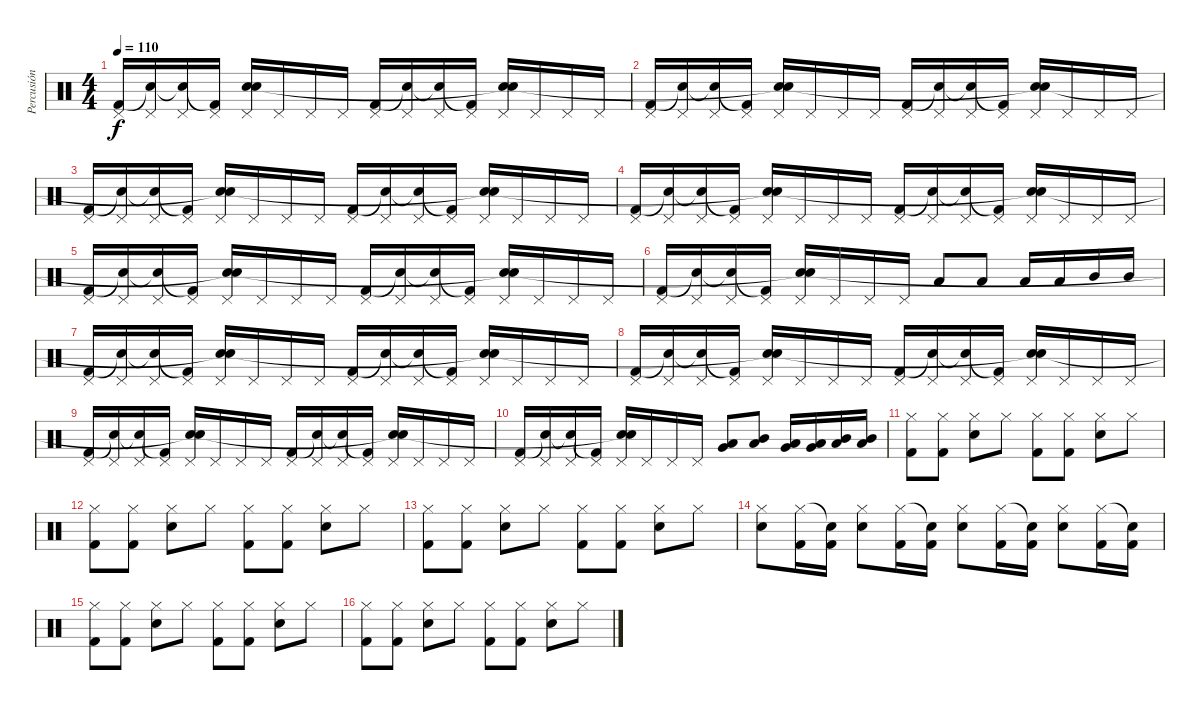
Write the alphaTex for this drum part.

\track ("Percusión" "Percusión") {instrument percussion}
\staff {score}
\articulation defaults
\ts (4 4)
\tempo 110
\clef neutral
\ks c
("Pedal Hi-Hat (hit)" "Kick (hit) 2").16{dy f} ("Pedal Hi-Hat (hit)" "Snare (hit)"{t}).16 ("Pedal Hi-Hat (hit)" "Snare (hit)"{t}).16 ("Pedal Hi-Hat (hit)" "Kick (hit) 2"{t}).16 ("Pedal Hi-Hat (hit)" "Electric Snare (hit)" "Snare (hit)").16 "Pedal Hi-Hat (hit)".16 "Pedal Hi-Hat (hit)".16 "Pedal Hi-Hat (hit)".16 ("Pedal Hi-Hat (hit)" "Kick (hit) 2").16 ("Pedal Hi-Hat (hit)" "Snare (hit)"{t}).16 ("Pedal Hi-Hat (hit)" "Snare (hit)"{t}).16 ("Pedal Hi-Hat (hit)" "Kick (hit) 2"{t}).16 ("Pedal Hi-Hat (hit)" "Electric Snare (hit)" "Snare (hit)"{t}).16 "Pedal Hi-Hat (hit)".16 "Pedal Hi-Hat (hit)".16 "Pedal Hi-Hat (hit)".16 |
("Pedal Hi-Hat (hit)" "Kick (hit) 2").16 ("Pedal Hi-Hat (hit)" "Snare (hit)"{t}).16 ("Pedal Hi-Hat (hit)" "Snare (hit)"{t}).16 ("Pedal Hi-Hat (hit)" "Kick (hit) 2"{t}).16 ("Pedal Hi-Hat (hit)" "Electric Snare (hit)" "Snare (hit)"{t}).16 "Pedal Hi-Hat (hit)".16 "Pedal Hi-Hat (hit)".16 "Pedal Hi-Hat (hit)".16 ("Pedal Hi-Hat (hit)" "Kick (hit) 2").16 ("Pedal Hi-Hat (hit)" "Snare (hit)"{t}).16 ("Pedal Hi-Hat (hit)" "Snare (hit)"{t}).16 ("Pedal Hi-Hat (hit)" "Kick (hit) 2"{t}).16 ("Pedal Hi-Hat (hit)" "Electric Snare (hit)" "Snare (hit)"{t}).16 "Pedal Hi-Hat (hit)".16 "Pedal Hi-Hat (hit)".16 "Pedal Hi-Hat (hit)".16 |
("Pedal Hi-Hat (hit)" "Kick (hit) 2").16 ("Pedal Hi-Hat (hit)" "Snare (hit)"{t}).16 ("Pedal Hi-Hat (hit)" "Snare (hit)"{t}).16 ("Pedal Hi-Hat (hit)" "Kick (hit) 2"{t}).16 ("Pedal Hi-Hat (hit)" "Electric Snare (hit)" "Snare (hit)"{t}).16 "Pedal Hi-Hat (hit)".16 "Pedal Hi-Hat (hit)".16 "Pedal Hi-Hat (hit)".16 ("Pedal Hi-Hat (hit)" "Kick (hit) 2").16 ("Pedal Hi-Hat (hit)" "Snare (hit)"{t}).16 ("Pedal Hi-Hat (hit)" "Snare (hit)"{t}).16 ("Pedal Hi-Hat (hit)" "Kick (hit) 2"{t}).16 ("Pedal Hi-Hat (hit)" "Electric Snare (hit)" "Snare (hit)"{t}).16 "Pedal Hi-Hat (hit)".16 "Pedal Hi-Hat (hit)".16 "Pedal Hi-Hat (hit)".16 |
("Pedal Hi-Hat (hit)" "Kick (hit) 2").16 ("Pedal Hi-Hat (hit)" "Snare (hit)"{t}).16 ("Pedal Hi-Hat (hit)" "Snare (hit)"{t}).16 ("Pedal Hi-Hat (hit)" "Kick (hit) 2"{t}).16 ("Pedal Hi-Hat (hit)" "Electric Snare (hit)" "Snare (hit)"{t}).16 "Pedal Hi-Hat (hit)".16 "Pedal Hi-Hat (hit)".16 "Pedal Hi-Hat (hit)".16 ("Pedal Hi-Hat (hit)" "Kick (hit) 2").16 ("Pedal Hi-Hat (hit)" "Snare (hit)"{t}).16 ("Pedal Hi-Hat (hit)" "Snare (hit)"{t}).16 ("Pedal Hi-Hat (hit)" "Kick (hit) 2"{t}).16 ("Pedal Hi-Hat (hit)" "Electric Snare (hit)" "Snare (hit)"{t}).16 "Pedal Hi-Hat (hit)".16 "Pedal Hi-Hat (hit)".16 "Pedal Hi-Hat (hit)".16 |
("Pedal Hi-Hat (hit)" "Kick (hit) 2").16 ("Pedal Hi-Hat (hit)" "Snare (hit)"{t}).16 ("Pedal Hi-Hat (hit)" "Snare (hit)"{t}).16 ("Pedal Hi-Hat (hit)" "Kick (hit) 2"{t}).16 ("Pedal Hi-Hat (hit)" "Electric Snare (hit)" "Snare (hit)"{t}).16 "Pedal Hi-Hat (hit)".16 "Pedal Hi-Hat (hit)".16 "Pedal Hi-Hat (hit)".16 ("Pedal Hi-Hat (hit)" "Kick (hit) 2").16 ("Pedal Hi-Hat (hit)" "Snare (hit)"{t}).16 ("Pedal Hi-Hat (hit)" "Snare (hit)"{t}).16 ("Pedal Hi-Hat (hit)" "Kick (hit) 2"{t}).16 ("Pedal Hi-Hat (hit)" "Electric Snare (hit)" "Snare (hit)"{t}).16 "Pedal Hi-Hat (hit)".16 "Pedal Hi-Hat (hit)".16 "Pedal Hi-Hat (hit)".16 |
("Pedal Hi-Hat (hit)" "Kick (hit) 2").16 ("Pedal Hi-Hat (hit)" "Snare (hit)"{t}).16 ("Pedal Hi-Hat (hit)" "Snare (hit)"{t}).16 ("Pedal Hi-Hat (hit)" "Kick (hit) 2"{t}).16 ("Pedal Hi-Hat (hit)" "Electric Snare (hit)" "Snare (hit)"{t}).16 "Pedal Hi-Hat (hit)".16 "Pedal Hi-Hat (hit)".16 "Pedal Hi-Hat (hit)".16 "Low Tom (hit)".8 "Low Tom (hit)".8 "Low Tom (hit)".16 "Low Tom (hit)".16 "Mid Tom (hit)".16 "Mid Tom (hit)".16 |
("Pedal Hi-Hat (hit)" "Kick (hit) 2").16 ("Pedal Hi-Hat (hit)" "Snare (hit)"{t}).16 ("Pedal Hi-Hat (hit)" "Snare (hit)"{t}).16 ("Pedal Hi-Hat (hit)" "Kick (hit) 2"{t}).16 ("Pedal Hi-Hat (hit)" "Electric Snare (hit)" "Snare (hit)"{t}).16 "Pedal Hi-Hat (hit)".16 "Pedal Hi-Hat (hit)".16 "Pedal Hi-Hat (hit)".16 ("Pedal Hi-Hat (hit)" "Kick (hit) 2").16 ("Pedal Hi-Hat (hit)" "Snare (hit)"{t}).16 ("Pedal Hi-Hat (hit)" "Snare (hit)"{t}).16 ("Pedal Hi-Hat (hit)" "Kick (hit) 2"{t}).16 ("Pedal Hi-Hat (hit)" "Electric Snare (hit)" "Snare (hit)"{t}).16 "Pedal Hi-Hat (hit)".16 "Pedal Hi-Hat (hit)".16 "Pedal Hi-Hat (hit)".16 |
("Pedal Hi-Hat (hit)" "Kick (hit) 2").16 ("Pedal Hi-Hat (hit)" "Snare (hit)"{t}).16 ("Pedal Hi-Hat (hit)" "Snare (hit)"{t}).16 ("Pedal Hi-Hat (hit)" "Kick (hit) 2"{t}).16 ("Pedal Hi-Hat (hit)" "Electric Snare (hit)" "Snare (hit)"{t}).16 "Pedal Hi-Hat (hit)".16 "Pedal Hi-Hat (hit)".16 "Pedal Hi-Hat (hit)".16 ("Pedal Hi-Hat (hit)" "Kick (hit) 2").16 ("Pedal Hi-Hat (hit)" "Snare (hit)"{t}).16 ("Pedal Hi-Hat (hit)" "Snare (hit)"{t}).16 ("Pedal Hi-Hat (hit)" "Kick (hit) 2"{t}).16 ("Pedal Hi-Hat (hit)" "Electric Snare (hit)" "Snare (hit)"{t}).16 "Pedal Hi-Hat (hit)".16 "Pedal Hi-Hat (hit)".16 "Pedal Hi-Hat (hit)".16 |
("Pedal Hi-Hat (hit)" "Kick (hit) 2").16 ("Pedal Hi-Hat (hit)" "Snare (hit)"{t}).16 ("Pedal Hi-Hat (hit)" "Snare (hit)"{t}).16 ("Pedal Hi-Hat (hit)" "Kick (hit) 2"{t}).16 ("Pedal Hi-Hat (hit)" "Electric Snare (hit)" "Snare (hit)"{t}).16 "Pedal Hi-Hat (hit)".16 "Pedal Hi-Hat (hit)".16 "Pedal Hi-Hat (hit)".16 ("Pedal Hi-Hat (hit)" "Kick (hit) 2").16 ("Pedal Hi-Hat (hit)" "Snare (hit)"{t}).16 ("Pedal Hi-Hat (hit)" "Snare (hit)"{t}).16 ("Pedal Hi-Hat (hit)" "Kick (hit) 2"{t}).16 ("Pedal Hi-Hat (hit)" "Electric Snare (hit)" "Snare (hit)"{t}).16 "Pedal Hi-Hat (hit)".16 "Pedal Hi-Hat (hit)".16 "Pedal Hi-Hat (hit)".16 |
("Pedal Hi-Hat (hit)" "Kick (hit) 2").16 ("Pedal Hi-Hat (hit)" "Snare (hit)"{t}).16 ("Pedal Hi-Hat (hit)" "Snare (hit)"{t}).16 ("Pedal Hi-Hat (hit)" "Kick (hit) 2"{t}).16 ("Pedal Hi-Hat (hit)" "Electric Snare (hit)" "Snare (hit)"{t}).16 "Pedal Hi-Hat (hit)".16 "Pedal Hi-Hat (hit)".16 "Pedal Hi-Hat (hit)".16 ("Low Tom (hit)" "Very Low Tom (hit)").8 ("Low Tom (hit)" "Mid Tom (hit)").8 ("Low Tom (hit)" "Very Low Tom (hit)").16 ("Low Tom (hit)" "Very Low Tom (hit)").16 ("Mid Tom (hit)" "Low Tom (hit)").16 ("Mid Tom (hit)" "Low Tom (hit)").16 |
("Hi-Hat (closed)" "Kick (hit) 2").8 ("Hi-Hat (closed)" "Kick (hit) 2").8 ("Hi-Hat (closed)" "Electric Snare (hit)").8 "Hi-Hat (closed)".8 ("Hi-Hat (closed)" "Kick (hit) 2").8 ("Hi-Hat (closed)" "Kick (hit) 2").8 ("Hi-Hat (closed)" "Electric Snare (hit)").8 "Hi-Hat (closed)".8 |
("Hi-Hat (closed)" "Kick (hit) 2").8 ("Hi-Hat (closed)" "Kick (hit) 2").8 ("Hi-Hat (closed)" "Electric Snare (hit)").8 "Hi-Hat (closed)".8 ("Hi-Hat (closed)" "Kick (hit) 2").8 ("Hi-Hat (closed)" "Kick (hit) 2").8 ("Hi-Hat (closed)" "Electric Snare (hit)").8 "Hi-Hat (closed)".8 |
("Hi-Hat (closed)" "Kick (hit) 2").8 ("Hi-Hat (closed)" "Kick (hit) 2").8 ("Hi-Hat (closed)" "Electric Snare (hit)").8 "Hi-Hat (closed)".8 ("Hi-Hat (closed)" "Kick (hit) 2").8 ("Hi-Hat (closed)" "Kick (hit) 2").8 ("Hi-Hat (closed)" "Electric Snare (hit)").8 "Hi-Hat (closed)".8 |
("Hi-Hat (closed)" "Electric Snare (hit)").8 ("Hi-Hat (closed)" "Kick (hit) 2").16 ("Snare (hit)"{t} "Kick (hit) 2").16 ("Hi-Hat (closed)" "Electric Snare (hit)").8 ("Hi-Hat (closed)" "Kick (hit) 2").16 ("Snare (hit)"{t} "Kick (hit) 2").16 ("Hi-Hat (closed)" "Electric Snare (hit)").8 ("Hi-Hat (closed)" "Kick (hit) 2").16 ("Snare (hit)"{t} "Kick (hit) 2").16 ("Hi-Hat (closed)" "Electric Snare (hit)").8 ("Hi-Hat (closed)" "Kick (hit) 2").16 ("Snare (hit)"{t} "Kick (hit) 2").16 |
("Hi-Hat (closed)" "Kick (hit) 2").8 ("Hi-Hat (closed)" "Kick (hit) 2").8 ("Hi-Hat (closed)" "Electric Snare (hit)").8 "Hi-Hat (closed)".8 ("Hi-Hat (closed)" "Kick (hit) 2").8 ("Hi-Hat (closed)" "Kick (hit) 2").8 ("Hi-Hat (closed)" "Electric Snare (hit)").8 "Hi-Hat (closed)".8 |
("Hi-Hat (closed)" "Kick (hit) 2").8 ("Hi-Hat (closed)" "Kick (hit) 2").8 ("Hi-Hat (closed)" "Electric Snare (hit)").8 "Hi-Hat (closed)".8 ("Hi-Hat (closed)" "Kick (hit) 2").8 ("Hi-Hat (closed)" "Kick (hit) 2").8 ("Hi-Hat (closed)" "Electric Snare (hit)").8 "Hi-Hat (closed)".8
